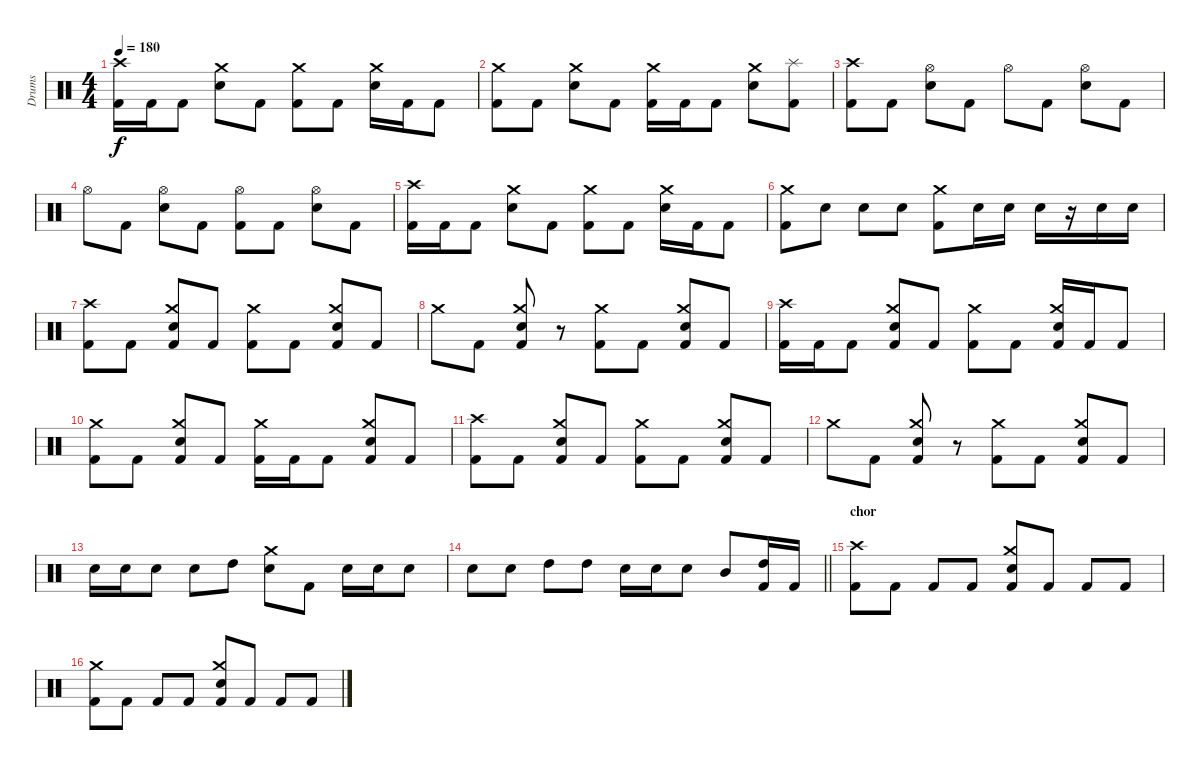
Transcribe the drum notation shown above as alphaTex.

\track ("Drums" "Drums") {instrument percussion}
\staff {score}
\articulation defaults
\ts (4 4)
\tempo 180
\clef neutral
\ks c
("Crash high (hit)" "Kick (hit) 2").16{dy f} "Kick (hit) 2".16 "Kick (hit) 2".8 ("Crash medium (hit)" "Electric Snare (hit)").8 "Kick (hit) 2".8 ("Crash medium (hit)" "Kick (hit) 2").8 "Kick (hit) 2".8 ("Crash medium (hit)" "Electric Snare (hit)").16 "Kick (hit) 2".16 "Kick (hit) 2".8 |
("Crash medium (hit)" "Kick (hit) 2").8 "Kick (hit) 2".8 ("Crash medium (hit)" "Electric Snare (hit)").8 "Kick (hit) 2".8 ("Crash medium (hit)" "Kick (hit) 2").16 "Kick (hit) 2".16 "Kick (hit) 2".8 ("Crash medium (hit)" "Electric Snare (hit)").8 ("Splash (hit)" "Kick (hit) 2").8 |
("Crash high (hit)" "Kick (hit) 2").8 "Kick (hit) 2".8 ("Hi-Hat (open)" "Electric Snare (hit)").8 "Kick (hit) 2".8 "Hi-Hat (open)".8 "Kick (hit) 2".8 ("Hi-Hat (open)" "Electric Snare (hit)").8 "Kick (hit) 2".8 |
"Hi-Hat (open)".8 "Kick (hit) 2".8 ("Hi-Hat (open)" "Electric Snare (hit)").8 "Kick (hit) 2".8 ("Hi-Hat (open)" "Kick (hit) 2").8 "Kick (hit) 2".8 ("Hi-Hat (open)" "Electric Snare (hit)").8 "Kick (hit) 2".8 |
("Crash high (hit)" "Kick (hit) 2").16 "Kick (hit) 2".16 "Kick (hit) 2".8 ("Crash medium (hit)" "Electric Snare (hit)").8 "Kick (hit) 2".8 ("Crash medium (hit)" "Kick (hit) 2").8 "Kick (hit) 2".8 ("Crash medium (hit)" "Electric Snare (hit)").16 "Kick (hit) 2".16 "Kick (hit) 2".8 |
("Crash medium (hit)" "Kick (hit) 2").8 "Electric Snare (hit)".8 "Electric Snare (hit)".8 "Electric Snare (hit)".8 ("Crash medium (hit)" "Kick (hit) 2").8 "Electric Snare (hit)".16 "Electric Snare (hit)".16 "Electric Snare (hit)".16 r.16 "Electric Snare (hit)".16 "Electric Snare (hit)".16 |
("Crash high (hit)" "Kick (hit) 2").8 "Kick (hit) 2".8 ("Crash medium (hit)" "Electric Snare (hit)" "Kick (hit) 2").8 "Kick (hit) 2".8 ("Crash medium (hit)" "Kick (hit) 2").8 "Kick (hit) 2".8 ("Crash medium (hit)" "Electric Snare (hit)" "Kick (hit) 2").8 "Kick (hit) 2".8 |
"Crash medium (hit)".8 "Kick (hit) 2".8 ("Crash medium (hit)" "Electric Snare (hit)" "Kick (hit) 2").8 r.8 ("Crash medium (hit)" "Kick (hit) 2").8 "Kick (hit) 2".8 ("Crash medium (hit)" "Electric Snare (hit)" "Kick (hit) 2").8 "Kick (hit) 2".8 |
("Crash high (hit)" "Kick (hit) 2").16 "Kick (hit) 2".16 "Kick (hit) 2".8 ("Crash medium (hit)" "Electric Snare (hit)" "Kick (hit) 2").8 "Kick (hit) 2".8 ("Crash medium (hit)" "Kick (hit) 2").8 "Kick (hit) 2".8 ("Crash medium (hit)" "Electric Snare (hit)" "Kick (hit) 2").16 "Kick (hit) 2".16 "Kick (hit) 2".8 |
("Crash medium (hit)" "Kick (hit) 2").8 "Kick (hit) 2".8 ("Crash medium (hit)" "Electric Snare (hit)" "Kick (hit) 2").8 "Kick (hit) 2".8 ("Crash medium (hit)" "Kick (hit) 2").16 "Kick (hit) 2".16 "Kick (hit) 2".8 ("Crash medium (hit)" "Electric Snare (hit)" "Kick (hit) 2").8 "Kick (hit) 2".8 |
("Crash high (hit)" "Kick (hit) 2").8 "Kick (hit) 2".8 ("Crash medium (hit)" "Electric Snare (hit)" "Kick (hit) 2").8 "Kick (hit) 2".8 ("Crash medium (hit)" "Kick (hit) 2").8 "Kick (hit) 2".8 ("Crash medium (hit)" "Electric Snare (hit)" "Kick (hit) 2").8 "Kick (hit) 2".8 |
"Crash medium (hit)".8 "Kick (hit) 2".8 ("Crash medium (hit)" "Electric Snare (hit)" "Kick (hit) 2").8 r.8 ("Crash medium (hit)" "Kick (hit) 2").8 "Kick (hit) 2".8 ("Crash medium (hit)" "Electric Snare (hit)" "Kick (hit) 2").8 "Kick (hit) 2".8 |
"Electric Snare (hit)".16 "Electric Snare (hit)".16 "Electric Snare (hit)".8 "Electric Snare (hit)".8 "High Tom (hit)".8 ("Crash medium (hit)" "Electric Snare (hit)").8 "Kick (hit) 2".8 "Electric Snare (hit)".16 "Electric Snare (hit)".16 "Electric Snare (hit)".8 |
\barLineRight lightlight "Electric Snare (hit)".8 "Electric Snare (hit)".8 "High Tom (hit)".8 "High Tom (hit)".8 "Electric Snare (hit)".16 "Electric Snare (hit)".16 "Electric Snare (hit)".8 "Mid Tom (hit)".8
("High Tom (hit)" "Kick (hit) 2").16 "Kick (hit) 2".16 |
\section ("" "chor")
("Crash high (hit)" "Kick (hit) 2").8 "Kick (hit) 2".8 "Kick (hit) 2".8 "Kick (hit) 2".8 ("Crash medium (hit)" "Electric Snare (hit)" "Kick (hit) 2").8 "Kick (hit) 2".8 "Kick (hit) 2".8 "Kick (hit) 2".8 |
("Crash medium (hit)" "Kick (hit) 2").8 "Kick (hit) 2".8 "Kick (hit) 2".8 "Kick (hit) 2".8 ("Crash medium (hit)" "Electric Snare (hit)" "Kick (hit) 2").8 "Kick (hit) 2".8 "Kick (hit) 2".8 "Kick (hit) 2".8
